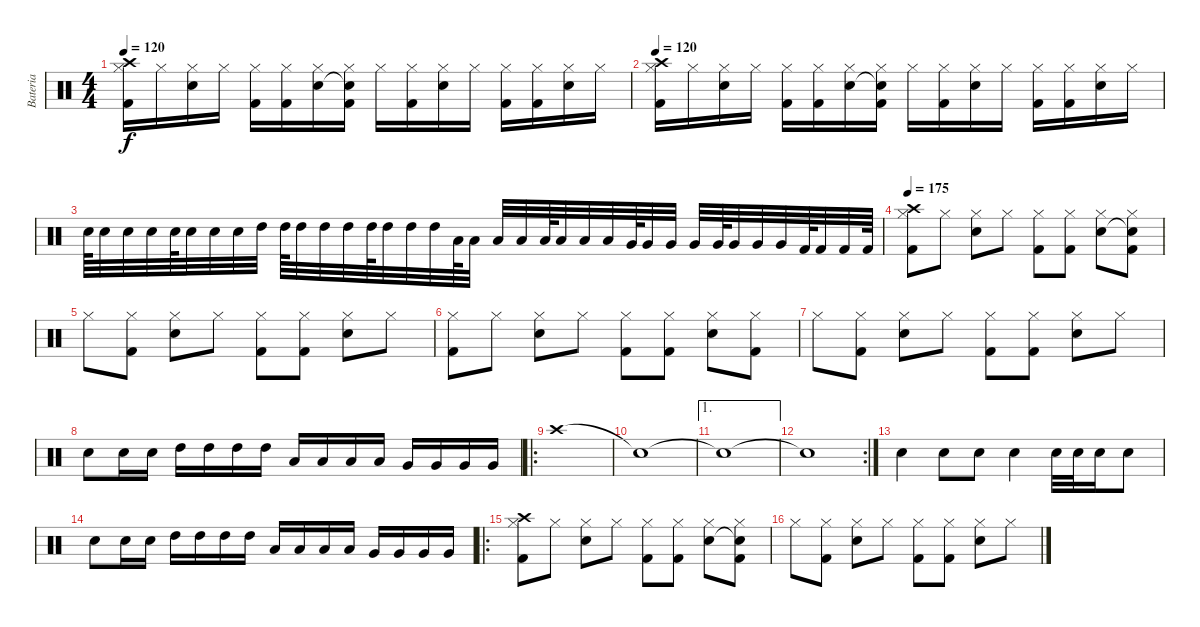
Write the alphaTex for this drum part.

\track ("Bateria" "Bateria") {instrument percussion}
\staff {score}
\articulation defaults
\ts (4 4)
\tempo 120
\clef neutral
\ks c
("Hi-Hat (closed)" "Crash high (hit)" "Kick (hit) 2").16{dy f} "Hi-Hat (closed)".16 ("Hi-Hat (closed)" "Snare (hit) 2").16 "Hi-Hat (closed)".16 ("Hi-Hat (closed)" "Kick (hit) 2").16 ("Hi-Hat (closed)" "Kick (hit) 2").16 ("Hi-Hat (closed)" "Snare (hit) 2").16 ("Hi-Hat (closed)" "Snare (hit)"{t} "Kick (hit) 2").16 "Hi-Hat (closed)".16 ("Hi-Hat (closed)" "Kick (hit) 2").16 ("Hi-Hat (closed)" "Snare (hit) 2").16 "Hi-Hat (closed)".16 ("Hi-Hat (closed)" "Kick (hit) 2").16 ("Hi-Hat (closed)" "Kick (hit) 2").16 ("Hi-Hat (closed)" "Snare (hit) 2").16 "Hi-Hat (closed)".16 |
\tempo 120
("Hi-Hat (closed)" "Crash high (hit)" "Kick (hit) 2").16 "Hi-Hat (closed)".16 ("Hi-Hat (closed)" "Snare (hit) 2").16 "Hi-Hat (closed)".16 ("Hi-Hat (closed)" "Kick (hit) 2").16 ("Hi-Hat (closed)" "Kick (hit) 2").16 ("Hi-Hat (closed)" "Snare (hit) 2").16 ("Hi-Hat (closed)" "Snare (hit)"{t} "Kick (hit) 2").16 "Hi-Hat (closed)".16 ("Hi-Hat (closed)" "Kick (hit) 2").16 ("Hi-Hat (closed)" "Snare (hit) 2").16 "Hi-Hat (closed)".16 ("Hi-Hat (closed)" "Kick (hit) 2").16 ("Hi-Hat (closed)" "Kick (hit) 2").16 ("Hi-Hat (closed)" "Snare (hit) 2").16 "Hi-Hat (closed)".16 |
"Snare (hit) 2".64 "Snare (hit) 2".32 "Snare (hit) 2".32 "Snare (hit) 2".32 "Snare (hit) 2".64 "Snare (hit) 2".32 "Snare (hit) 2".32 "Snare (hit) 2".32 "High Tom (hit)".32 "High Tom (hit)".64 "High Tom (hit)".32 "High Tom (hit)".32 "High Tom (hit)".32 "High Tom (hit)".64 "High Tom (hit)".32 "High Tom (hit)".32 "High Tom (hit)".32 "Low Tom (hit)".64 "Low Tom (hit)".32 "Low Tom (hit)".32 "Low Tom (hit)".32 "Low Tom (hit)".64 "Low Tom (hit)".32 "Low Tom (hit)".32 "Low Tom (hit)".32 "Very Low Tom (hit)".64 "Very Low Tom (hit)".32 "Very Low Tom (hit)".32 "Very Low Tom (hit)".32 "Very Low Tom (hit)".64 "Very Low Tom (hit)".32 "Very Low Tom (hit)".32 "Very Low Tom (hit)".32 "Kick (hit) 2".64 "Kick (hit) 2".32 "Kick (hit) 2".32 "Kick (hit) 2".64 |
\tempo 175
("Hi-Hat (closed)" "Crash high (hit)" "Kick (hit) 2").8 "Hi-Hat (closed)".8 ("Hi-Hat (closed)" "Snare (hit) 2").8 "Hi-Hat (closed)".8 ("Hi-Hat (closed)" "Kick (hit) 2").8 ("Hi-Hat (closed)" "Kick (hit) 2").8 ("Hi-Hat (closed)" "Snare (hit) 2").8 ("Hi-Hat (closed)" "Snare (hit)"{t} "Kick (hit) 2").8 |
"Hi-Hat (closed)".8 ("Hi-Hat (closed)" "Kick (hit) 2").8 ("Hi-Hat (closed)" "Snare (hit) 2").8 "Hi-Hat (closed)".8 ("Hi-Hat (closed)" "Kick (hit) 2").8 ("Hi-Hat (closed)" "Kick (hit) 2").8 ("Hi-Hat (closed)" "Snare (hit) 2").8 "Hi-Hat (closed)".8 |
("Hi-Hat (closed)" "Kick (hit) 2").8 "Hi-Hat (closed)".8 ("Hi-Hat (closed)" "Snare (hit) 2").8 "Hi-Hat (closed)".8 ("Hi-Hat (closed)" "Kick (hit) 2").8 ("Hi-Hat (closed)" "Kick (hit) 2").8 ("Hi-Hat (closed)" "Snare (hit) 2").8 ("Hi-Hat (closed)" "Kick (hit) 2").8 |
"Hi-Hat (closed)".8 ("Hi-Hat (closed)" "Kick (hit) 2").8 ("Hi-Hat (closed)" "Snare (hit) 2").8 "Hi-Hat (closed)".8 ("Hi-Hat (closed)" "Kick (hit) 2").8 ("Hi-Hat (closed)" "Kick (hit) 2").8 ("Hi-Hat (closed)" "Snare (hit) 2").8 "Hi-Hat (closed)".8 |
"Snare (hit) 2".8 "Snare (hit) 2".16 "Snare (hit) 2".16 "High Tom (hit)".16 "High Tom (hit)".16 "High Tom (hit)".16 "High Tom (hit)".16 "Low Tom (hit)".16 "Low Tom (hit)".16 "Low Tom (hit)".16 "Low Tom (hit)".16 "Very Low Tom (hit)".16 "Very Low Tom (hit)".16 "Very Low Tom (hit)".16 "Very Low Tom (hit)".16 |
\ro "Crash high (hit)".1
|
"Snare (hit)"{t}.1 |
\ae 1 "Snare (hit)"{t}.1
|
\rc 2 "Snare (hit)"{t}.1
|
"Snare (hit) 2".4 "Snare (hit) 2".8 "Snare (hit) 2".8 "Snare (hit) 2".4 "Snare (hit) 2".32 "Snare (hit) 2".32 "Snare (hit) 2".16 "Snare (hit) 2".8 |
"Snare (hit) 2".8 "Snare (hit) 2".16 "Snare (hit) 2".16 "High Tom (hit)".16 "High Tom (hit)".16 "High Tom (hit)".16 "High Tom (hit)".16 "Low Tom (hit)".16 "Low Tom (hit)".16 "Low Tom (hit)".16 "Low Tom (hit)".16 "Very Low Tom (hit)".16 "Very Low Tom (hit)".16 "Very Low Tom (hit)".16 "Very Low Tom (hit)".16 |
\ro
("Hi-Hat (closed)" "Crash high (hit)" "Kick (hit) 2").8 "Hi-Hat (closed)".8 ("Hi-Hat (closed)" "Snare (hit) 2").8 "Hi-Hat (closed)".8 ("Hi-Hat (closed)" "Kick (hit) 2").8 ("Hi-Hat (closed)" "Kick (hit) 2").8 ("Hi-Hat (closed)" "Snare (hit) 2").8 ("Hi-Hat (closed)" "Snare (hit)"{t} "Kick (hit) 2").8 |
"Hi-Hat (closed)".8 ("Hi-Hat (closed)" "Kick (hit) 2").8 ("Hi-Hat (closed)" "Snare (hit) 2").8 "Hi-Hat (closed)".8 ("Hi-Hat (closed)" "Kick (hit) 2").8 ("Hi-Hat (closed)" "Kick (hit) 2").8 ("Hi-Hat (closed)" "Snare (hit) 2").8 "Hi-Hat (closed)".8
